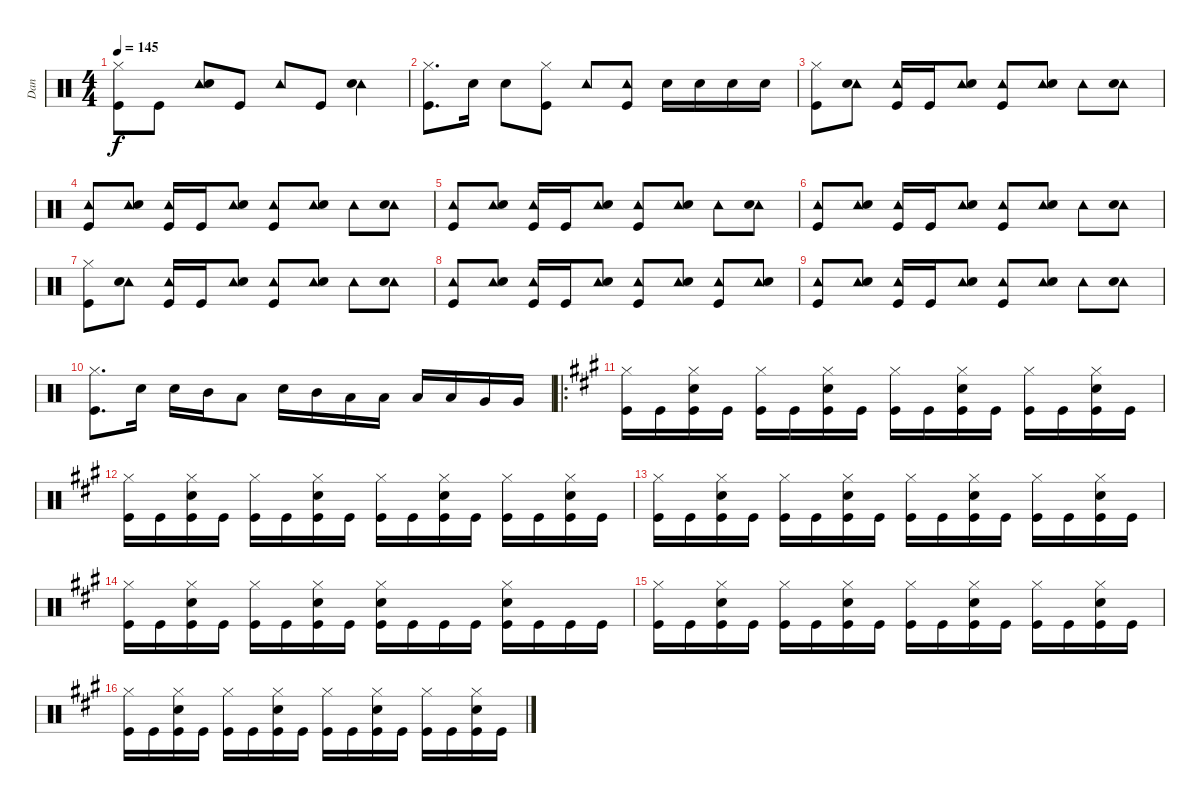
\track ("Dan" "Dan") {instrument percussion}
\staff {score}
\articulation defaults
\ts (4 4)
\tempo 145
\clef neutral
\ks c
("Hi-Hat (closed)" "Kick (hit)").8{dy f} "Kick (hit)".8 ("Tambourine (hit)" "Snare (hit) 2").8 "Kick (hit)".8 "Tambourine (hit)".8 "Kick (hit)".8 ("Tambourine (hit)" "Snare (hit) 2").4 |
("Hi-Hat (closed)" "Kick (hit)").8{d} "Snare (hit) 2".16 "Snare (hit) 2".8 ("Hi-Hat (closed)" "Kick (hit)").8 "Tambourine (hit)".8 ("Tambourine (hit)" "Kick (hit)").8 "Snare (hit) 2".16 "Snare (hit) 2".16 "Snare (hit) 2".16 "Snare (hit) 2".16 |
("Hi-Hat (closed)" "Kick (hit)").8 ("Tambourine (hit)" "Snare (hit) 2").8 ("Tambourine (hit)" "Kick (hit)").16 "Kick (hit)".16 ("Tambourine (hit)" "Snare (hit) 2").8 ("Tambourine (hit)" "Kick (hit)").8 ("Tambourine (hit)" "Snare (hit) 2").8 "Tambourine (hit)".8 ("Tambourine (hit)" "Snare (hit) 2").8 |
("Tambourine (hit)" "Kick (hit)").8 ("Tambourine (hit)" "Snare (hit) 2").8 ("Tambourine (hit)" "Kick (hit)").16 "Kick (hit)".16 ("Tambourine (hit)" "Snare (hit) 2").8 ("Tambourine (hit)" "Kick (hit)").8 ("Tambourine (hit)" "Snare (hit) 2").8 "Tambourine (hit)".8 ("Tambourine (hit)" "Snare (hit) 2").8 |
("Tambourine (hit)" "Kick (hit)").8 ("Tambourine (hit)" "Snare (hit) 2").8 ("Tambourine (hit)" "Kick (hit)").16 "Kick (hit)".16 ("Tambourine (hit)" "Snare (hit) 2").8 ("Tambourine (hit)" "Kick (hit)").8 ("Tambourine (hit)" "Snare (hit) 2").8 "Tambourine (hit)".8 ("Tambourine (hit)" "Snare (hit) 2").8 |
("Tambourine (hit)" "Kick (hit)").8 ("Tambourine (hit)" "Snare (hit) 2").8 ("Tambourine (hit)" "Kick (hit)").16 "Kick (hit)".16 ("Tambourine (hit)" "Snare (hit) 2").8 ("Tambourine (hit)" "Kick (hit)").8 ("Tambourine (hit)" "Snare (hit) 2").8 "Tambourine (hit)".8 ("Tambourine (hit)" "Snare (hit) 2").8 |
("Hi-Hat (closed)" "Kick (hit)").8 ("Tambourine (hit)" "Snare (hit) 2").8 ("Tambourine (hit)" "Kick (hit)").16 "Kick (hit)".16 ("Tambourine (hit)" "Snare (hit) 2").8 ("Tambourine (hit)" "Kick (hit)").8 ("Tambourine (hit)" "Snare (hit) 2").8 "Tambourine (hit)".8 ("Tambourine (hit)" "Snare (hit) 2").8 |
("Tambourine (hit)" "Kick (hit)").8 ("Tambourine (hit)" "Snare (hit) 2").8 ("Tambourine (hit)" "Kick (hit)").16 "Kick (hit)".16 ("Tambourine (hit)" "Snare (hit) 2").8 ("Tambourine (hit)" "Kick (hit)").8 ("Tambourine (hit)" "Snare (hit) 2").8 ("Tambourine (hit)" "Kick (hit)").8 ("Tambourine (hit)" "Snare (hit) 2").8 |
("Tambourine (hit)" "Kick (hit)").8 ("Tambourine (hit)" "Snare (hit) 2").8 ("Tambourine (hit)" "Kick (hit)").16 "Kick (hit)".16 ("Tambourine (hit)" "Snare (hit) 2").8 ("Tambourine (hit)" "Kick (hit)").8 ("Tambourine (hit)" "Snare (hit) 2").8 "Tambourine (hit)".8 ("Tambourine (hit)" "Snare (hit) 2").8 |
("Hi-Hat (closed)" "Kick (hit)").8{d} "Electric Snare (hit)".16 "Electric Snare (hit)".16 "Mid Tom (hit)".16 "Low Tom (hit)".8 "Electric Snare (hit)".16 "Mid Tom (hit)".16 "Low Tom (hit)".16 "Low Tom (hit)".16 "Low Tom (hit)".16 "Low Tom (hit)".16 "Very Low Tom (hit)".16 "Very Low Tom (hit)".16 |
\ro
\ks a
("Hi-Hat (closed)" "Kick (hit)").16 "Kick (hit)".16 ("Hi-Hat (closed)" "Snare (hit) 2" "Kick (hit)").16 "Kick (hit)".16 ("Hi-Hat (closed)" "Kick (hit)").16 "Kick (hit)".16 ("Hi-Hat (closed)" "Snare (hit) 2" "Kick (hit)").16 "Kick (hit)".16 ("Hi-Hat (closed)" "Kick (hit)").16 "Kick (hit)".16 ("Hi-Hat (closed)" "Snare (hit) 2" "Kick (hit)").16 "Kick (hit)".16 ("Hi-Hat (closed)" "Kick (hit)").16 "Kick (hit)".16 ("Hi-Hat (closed)" "Snare (hit) 2" "Kick (hit)").16 "Kick (hit)".16 |
("Hi-Hat (closed)" "Kick (hit)").16 "Kick (hit)".16 ("Hi-Hat (closed)" "Snare (hit) 2" "Kick (hit)").16 "Kick (hit)".16 ("Hi-Hat (closed)" "Kick (hit)").16 "Kick (hit)".16 ("Hi-Hat (closed)" "Snare (hit) 2" "Kick (hit)").16 "Kick (hit)".16 ("Hi-Hat (closed)" "Kick (hit)").16 "Kick (hit)".16 ("Hi-Hat (closed)" "Snare (hit) 2" "Kick (hit)").16 "Kick (hit)".16 ("Hi-Hat (closed)" "Kick (hit)").16 "Kick (hit)".16 ("Hi-Hat (closed)" "Snare (hit) 2" "Kick (hit)").16 "Kick (hit)".16 |
("Hi-Hat (closed)" "Kick (hit)").16 "Kick (hit)".16 ("Hi-Hat (closed)" "Snare (hit) 2" "Kick (hit)").16 "Kick (hit)".16 ("Hi-Hat (closed)" "Kick (hit)").16 "Kick (hit)".16 ("Hi-Hat (closed)" "Snare (hit) 2" "Kick (hit)").16 "Kick (hit)".16 ("Hi-Hat (closed)" "Kick (hit)").16 "Kick (hit)".16 ("Hi-Hat (closed)" "Snare (hit) 2" "Kick (hit)").16 "Kick (hit)".16 ("Hi-Hat (closed)" "Kick (hit)").16 "Kick (hit)".16 ("Hi-Hat (closed)" "Snare (hit) 2" "Kick (hit)").16 "Kick (hit)".16 |
("Hi-Hat (closed)" "Kick (hit)").16 "Kick (hit)".16 ("Hi-Hat (closed)" "Snare (hit) 2" "Kick (hit)").16 "Kick (hit)".16 ("Hi-Hat (closed)" "Kick (hit)").16 "Kick (hit)".16 ("Hi-Hat (closed)" "Snare (hit) 2" "Kick (hit)").16 "Kick (hit)".16 ("Hi-Hat (closed)" "Snare (hit) 2" "Kick (hit)").16 "Kick (hit)".16 "Kick (hit)".16 "Kick (hit)".16 ("Hi-Hat (closed)" "Snare (hit) 2" "Kick (hit)").16 "Kick (hit)".16 "Kick (hit)".16 "Kick (hit)".16 |
("Hi-Hat (closed)" "Kick (hit)").16 "Kick (hit)".16 ("Hi-Hat (closed)" "Snare (hit) 2" "Kick (hit)").16 "Kick (hit)".16 ("Hi-Hat (closed)" "Kick (hit)").16 "Kick (hit)".16 ("Hi-Hat (closed)" "Snare (hit) 2" "Kick (hit)").16 "Kick (hit)".16 ("Hi-Hat (closed)" "Kick (hit)").16 "Kick (hit)".16 ("Hi-Hat (closed)" "Snare (hit) 2" "Kick (hit)").16 "Kick (hit)".16 ("Hi-Hat (closed)" "Kick (hit)").16 "Kick (hit)".16 ("Hi-Hat (closed)" "Snare (hit) 2" "Kick (hit)").16 "Kick (hit)".16 |
("Hi-Hat (closed)" "Kick (hit)").16 "Kick (hit)".16 ("Hi-Hat (closed)" "Snare (hit) 2" "Kick (hit)").16 "Kick (hit)".16 ("Hi-Hat (closed)" "Kick (hit)").16 "Kick (hit)".16 ("Hi-Hat (closed)" "Snare (hit) 2" "Kick (hit)").16 "Kick (hit)".16 ("Hi-Hat (closed)" "Kick (hit)").16 "Kick (hit)".16 ("Hi-Hat (closed)" "Snare (hit) 2" "Kick (hit)").16 "Kick (hit)".16 ("Hi-Hat (closed)" "Kick (hit)").16 "Kick (hit)".16 ("Hi-Hat (closed)" "Snare (hit) 2" "Kick (hit)").16 "Kick (hit)".16
